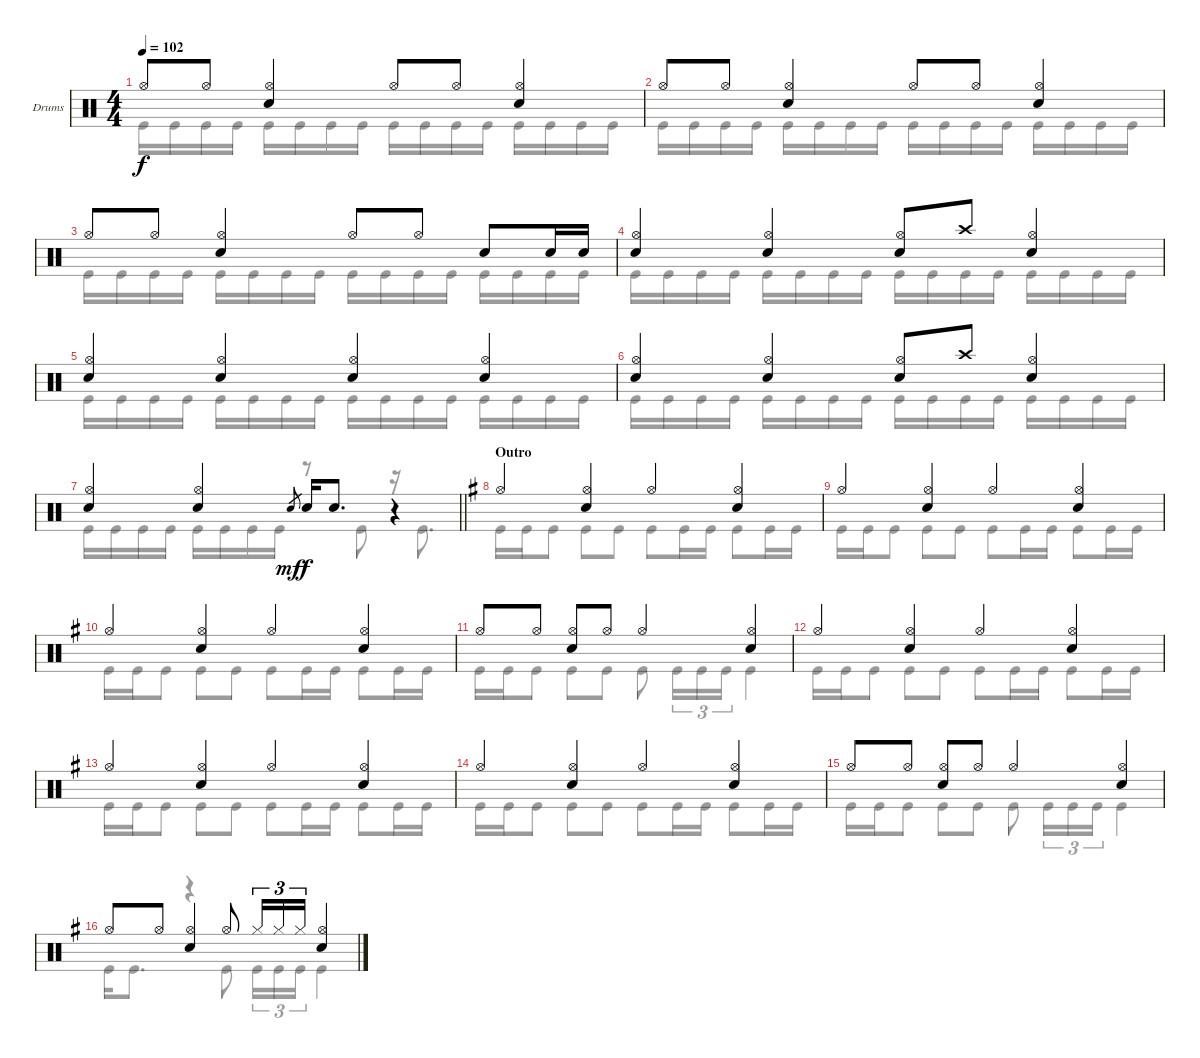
\bracketExtendMode groupsimilarinstruments
\firstSystemTrackNameOrientation horizontal
\otherSystemsTrackNameOrientation horizontal
\track ("Drumkit" "Drums") {instrument percussion}
\staff {score}
\articulation defaults
\voice
\ts (4 4)
\tempo 102
\clef neutral
\ks c "Hi-Hat (open)".8{dy f} "Hi-Hat (open)".8
("Hi-Hat (open)" "Snare (hit) 2").4 "Hi-Hat (open)".8 "Hi-Hat (open)".8 ("Hi-Hat (open)" "Snare (hit) 2").4 |
"Hi-Hat (open)".8 "Hi-Hat (open)".8 ("Hi-Hat (open)" "Snare (hit) 2").4 "Hi-Hat (open)".8 "Hi-Hat (open)".8 ("Hi-Hat (open)" "Snare (hit) 2").4 |
"Hi-Hat (open)".8 "Hi-Hat (open)".8 ("Hi-Hat (open)" "Snare (hit) 2").4 "Hi-Hat (open)".8 "Hi-Hat (open)".8 "Snare (hit) 2".8 "Snare (hit) 2".16 "Snare (hit) 2".16 |
("Hi-Hat (open)" "Snare (hit) 2").4 ("Hi-Hat (open)" "Snare (hit) 2").4 ("Hi-Hat (open)" "Snare (hit) 2").8 "Crash high (hit)".8 ("Hi-Hat (open)" "Snare (hit) 2").4 |
("Hi-Hat (open)" "Snare (hit) 2").4 ("Hi-Hat (open)" "Snare (hit) 2").4 ("Hi-Hat (open)" "Snare (hit) 2").4 ("Hi-Hat (open)" "Snare (hit) 2").4 |
("Hi-Hat (open)" "Snare (hit) 2").4 ("Hi-Hat (open)" "Snare (hit) 2").4 ("Hi-Hat (open)" "Snare (hit) 2").8 "Crash high (hit)".8 ("Hi-Hat (open)" "Snare (hit) 2").4 |
\barLineRight lightlight
("Hi-Hat (open)" "Snare (hit) 2").4 ("Hi-Hat (open)" "Snare (hit) 2").4 "Snare (hit) 2".8{gr dy mf} "Snare (hit) 2".16{dy f} "Snare (hit) 2".8{d} r.4 |
\section ("" "Outro")
\ks g "Hi-Hat (open)".4
("Hi-Hat (open)" "Snare (hit) 2").4 "Hi-Hat (open)".4 ("Hi-Hat (open)" "Snare (hit) 2").4 |
"Hi-Hat (open)".4 ("Hi-Hat (open)" "Snare (hit) 2").4 "Hi-Hat (open)".4 ("Hi-Hat (open)" "Snare (hit) 2").4 |
"Hi-Hat (open)".4 ("Hi-Hat (open)" "Snare (hit) 2").4 "Hi-Hat (open)".4 ("Hi-Hat (open)" "Snare (hit) 2").4 |
"Hi-Hat (open)".8 "Hi-Hat (open)".8 ("Hi-Hat (open)" "Snare (hit) 2").8 "Hi-Hat (open)".8 "Hi-Hat (open)".4 ("Hi-Hat (open)" "Snare (hit) 2").4 |
"Hi-Hat (open)".4 ("Hi-Hat (open)" "Snare (hit) 2").4 "Hi-Hat (open)".4 ("Hi-Hat (open)" "Snare (hit) 2").4 |
"Hi-Hat (open)".4 ("Hi-Hat (open)" "Snare (hit) 2").4 "Hi-Hat (open)".4 ("Hi-Hat (open)" "Snare (hit) 2").4 |
"Hi-Hat (open)".4 ("Hi-Hat (open)" "Snare (hit) 2").4 "Hi-Hat (open)".4 ("Hi-Hat (open)" "Snare (hit) 2").4 |
"Hi-Hat (open)".8 "Hi-Hat (open)".8 ("Hi-Hat (open)" "Snare (hit) 2").8 "Hi-Hat (open)".8 "Hi-Hat (open)".4 ("Hi-Hat (open)" "Snare (hit) 2").4 |
"Hi-Hat (open)".8 "Hi-Hat (open)".8 ("Hi-Hat (open)" "Snare (hit) 2").4 "Hi-Hat (open)".8 "Hi-Hat (closed)".16{tu (3 2)} "Hi-Hat (closed)".16{tu (3 2)} "Hi-Hat (closed)".16{tu (3 2)} ("Hi-Hat (open)" "Snare (hit) 2").4
\voice
\clef neutral
\ottava regular
\simile none
\ks c "Kick (hit)".16{dy f} "Kick (hit)".16 "Kick (hit)".16 "Kick (hit)".16 "Kick (hit)".16 "Kick (hit)".16 "Kick (hit)".16 "Kick (hit)".16 "Kick (hit)".16 "Kick (hit)".16 "Kick (hit)".16 "Kick (hit)".16 "Kick (hit)".16 "Kick (hit)".16 "Kick (hit)".16 "Kick (hit)".16
|
"Kick (hit)".16 "Kick (hit)".16 "Kick (hit)".16 "Kick (hit)".16 "Kick (hit)".16 "Kick (hit)".16 "Kick (hit)".16 "Kick (hit)".16 "Kick (hit)".16 "Kick (hit)".16 "Kick (hit)".16 "Kick (hit)".16 "Kick (hit)".16 "Kick (hit)".16 "Kick (hit)".16 "Kick (hit)".16 |
"Kick (hit)".16 "Kick (hit)".16 "Kick (hit)".16 "Kick (hit)".16 "Kick (hit)".16 "Kick (hit)".16 "Kick (hit)".16 "Kick (hit)".16 "Kick (hit)".16 "Kick (hit)".16 "Kick (hit)".16 "Kick (hit)".16 "Kick (hit)".16 "Kick (hit)".16 "Kick (hit)".16 "Kick (hit)".16 |
"Kick (hit)".16 "Kick (hit)".16 "Kick (hit)".16 "Kick (hit)".16 "Kick (hit)".16 "Kick (hit)".16 "Kick (hit)".16 "Kick (hit)".16 "Kick (hit)".16 "Kick (hit)".16 "Kick (hit)".16 "Kick (hit)".16 "Kick (hit)".16 "Kick (hit)".16 "Kick (hit)".16 "Kick (hit)".16 |
"Kick (hit)".16 "Kick (hit)".16 "Kick (hit)".16 "Kick (hit)".16 "Kick (hit)".16 "Kick (hit)".16 "Kick (hit)".16 "Kick (hit)".16 "Kick (hit)".16 "Kick (hit)".16 "Kick (hit)".16 "Kick (hit)".16 "Kick (hit)".16 "Kick (hit)".16 "Kick (hit)".16 "Kick (hit)".16 |
"Kick (hit)".16 "Kick (hit)".16 "Kick (hit)".16 "Kick (hit)".16 "Kick (hit)".16 "Kick (hit)".16 "Kick (hit)".16 "Kick (hit)".16 "Kick (hit)".16 "Kick (hit)".16 "Kick (hit)".16 "Kick (hit)".16 "Kick (hit)".16 "Kick (hit)".16 "Kick (hit)".16 "Kick (hit)".16 |
\barLineRight lightlight "Kick (hit)".16 "Kick (hit)".16 "Kick (hit)".16 "Kick (hit)".16 "Kick (hit)".16 "Kick (hit)".16 "Kick (hit)".16 "Kick (hit)".16
r.8 "Kick (hit)".8 r.16 "Kick (hit)".8{d} |
\ks g "Kick (hit)".16 "Kick (hit)".16 "Kick (hit)".8 "Kick (hit)".8 "Kick (hit)".8 "Kick (hit)".8 "Kick (hit)".16 "Kick (hit)".16 "Kick (hit)".8 "Kick (hit)".16 "Kick (hit)".16
|
"Kick (hit)".16 "Kick (hit)".16 "Kick (hit)".8 "Kick (hit)".8 "Kick (hit)".8 "Kick (hit)".8 "Kick (hit)".16 "Kick (hit)".16 "Kick (hit)".8 "Kick (hit)".16 "Kick (hit)".16 |
"Kick (hit)".16 "Kick (hit)".16 "Kick (hit)".8 "Kick (hit)".8 "Kick (hit)".8 "Kick (hit)".8 "Kick (hit)".16 "Kick (hit)".16 "Kick (hit)".8 "Kick (hit)".16 "Kick (hit)".16 |
"Kick (hit)".16 "Kick (hit)".16 "Kick (hit)".8 "Kick (hit)".8 "Kick (hit)".8 "Kick (hit)".8 "Kick (hit)".16{tu (3 2)} "Kick (hit)".16{tu (3 2)} "Kick (hit)".16{tu (3 2)} "Kick (hit)".4 |
"Kick (hit)".16 "Kick (hit)".16 "Kick (hit)".8 "Kick (hit)".8 "Kick (hit)".8 "Kick (hit)".8 "Kick (hit)".16 "Kick (hit)".16 "Kick (hit)".8 "Kick (hit)".16 "Kick (hit)".16 |
"Kick (hit)".16 "Kick (hit)".16 "Kick (hit)".8 "Kick (hit)".8 "Kick (hit)".8 "Kick (hit)".8 "Kick (hit)".16 "Kick (hit)".16 "Kick (hit)".8 "Kick (hit)".16 "Kick (hit)".16 |
"Kick (hit)".16 "Kick (hit)".16 "Kick (hit)".8 "Kick (hit)".8 "Kick (hit)".8 "Kick (hit)".8 "Kick (hit)".16 "Kick (hit)".16 "Kick (hit)".8 "Kick (hit)".16 "Kick (hit)".16 |
"Kick (hit)".16 "Kick (hit)".16 "Kick (hit)".8 "Kick (hit)".8 "Kick (hit)".8 "Kick (hit)".8 "Kick (hit)".16{tu (3 2)} "Kick (hit)".16{tu (3 2)} "Kick (hit)".16{tu (3 2)} "Kick (hit)".4 |
"Kick (hit)".16 "Kick (hit)".8{d} r.4 "Kick (hit)".8 "Kick (hit)".16{tu (3 2)} "Kick (hit)".16{tu (3 2)} "Kick (hit)".16{tu (3 2)} "Kick (hit)".4
